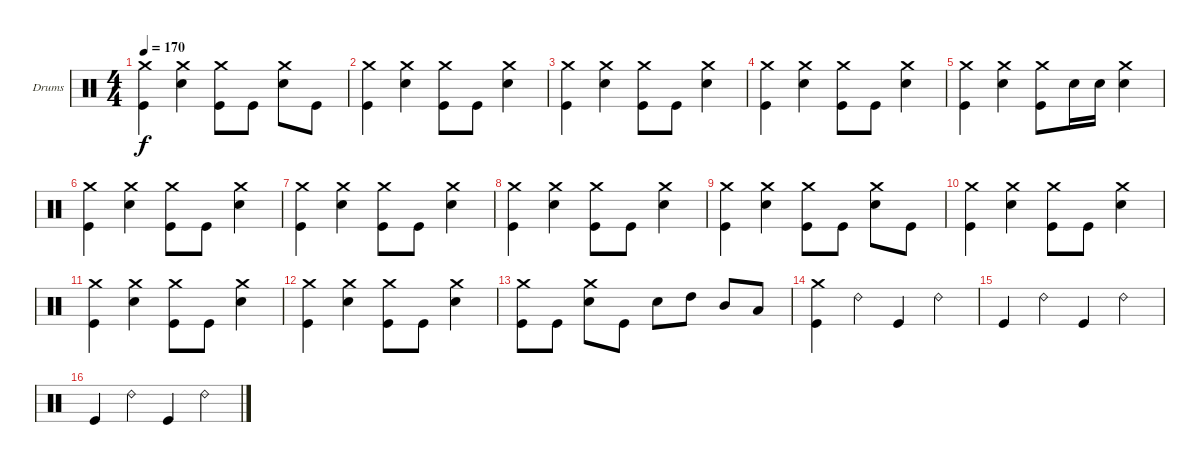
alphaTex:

\defaultSystemsLayout 4
\bracketExtendMode groupsimilarinstruments
\firstSystemTrackNameOrientation horizontal
\otherSystemsTrackNameOrientation horizontal
\track ("Drumkit" "Drums") {instrument percussion}
\staff {score}
\articulation defaults
\ts (4 4)
\tempo 170
\clef neutral
\ks c
("Crash medium (hit)" "Kick (hit)").4{dy f} ("Crash medium (hit)" "Snare (hit) 2").4 ("Crash medium (hit)" "Kick (hit)").8 "Kick (hit)".8 ("Crash medium (hit)" "Snare (hit) 2").8 "Kick (hit)".8 |
("Crash medium (hit)" "Kick (hit)").4 ("Crash medium (hit)" "Snare (hit) 2").4 ("Crash medium (hit)" "Kick (hit)").8 "Kick (hit)".8 ("Crash medium (hit)" "Snare (hit) 2").4 |
("Crash medium (hit)" "Kick (hit)").4 ("Crash medium (hit)" "Snare (hit) 2").4 ("Crash medium (hit)" "Kick (hit)").8 "Kick (hit)".8 ("Crash medium (hit)" "Snare (hit) 2").4 |
("Crash medium (hit)" "Kick (hit)").4 ("Crash medium (hit)" "Snare (hit) 2").4 ("Crash medium (hit)" "Kick (hit)").8 "Kick (hit)".8 ("Crash medium (hit)" "Snare (hit) 2").4 |
("Crash medium (hit)" "Kick (hit)").4 ("Crash medium (hit)" "Snare (hit) 2").4 ("Crash medium (hit)" "Kick (hit)").8 "Snare (hit) 2".16 "Snare (hit) 2".16 ("Crash medium (hit)" "Snare (hit) 2").4 |
("Crash medium (hit)" "Kick (hit)").4 ("Crash medium (hit)" "Snare (hit) 2").4 ("Crash medium (hit)" "Kick (hit)").8 "Kick (hit)".8 ("Crash medium (hit)" "Snare (hit) 2").4 |
("Crash medium (hit)" "Kick (hit)").4 ("Crash medium (hit)" "Snare (hit) 2").4 ("Crash medium (hit)" "Kick (hit)").8 "Kick (hit)".8 ("Crash medium (hit)" "Snare (hit) 2").4 |
("Crash medium (hit)" "Kick (hit)").4 ("Crash medium (hit)" "Snare (hit) 2").4 ("Crash medium (hit)" "Kick (hit)").8 "Kick (hit)".8 ("Crash medium (hit)" "Snare (hit) 2").4 |
("Crash medium (hit)" "Kick (hit)").4 ("Crash medium (hit)" "Snare (hit) 2").4 ("Crash medium (hit)" "Kick (hit)").8 "Kick (hit)".8 ("Crash medium (hit)" "Snare (hit) 2").8 "Kick (hit)".8 |
("Crash medium (hit)" "Kick (hit)").4 ("Crash medium (hit)" "Snare (hit) 2").4 ("Crash medium (hit)" "Kick (hit)").8 "Kick (hit)".8 ("Crash medium (hit)" "Snare (hit) 2").4 |
("Crash medium (hit)" "Kick (hit)").4 ("Crash medium (hit)" "Snare (hit) 2").4 ("Crash medium (hit)" "Kick (hit)").8 "Kick (hit)".8 ("Crash medium (hit)" "Snare (hit) 2").4 |
("Crash medium (hit)" "Kick (hit)").4 ("Crash medium (hit)" "Snare (hit) 2").4 ("Crash medium (hit)" "Kick (hit)").8 "Kick (hit)".8 ("Crash medium (hit)" "Snare (hit) 2").4 |
("Crash medium (hit)" "Kick (hit)").8 "Kick (hit)".8 ("Crash medium (hit)" "Snare (hit) 2").8 "Kick (hit)".8 "Snare (hit) 2".8 "High Tom (hit)".8 "Mid Tom (hit)".8 "Low Tom (hit)".8 |
("Crash medium (hit)" "Kick (hit)").4 "Ride (bell) 2".4 "Kick (hit)".4 "Ride (bell) 2".4 |
"Kick (hit)".4 "Ride (bell) 2".4 "Kick (hit)".4 "Ride (bell) 2".4 |
"Kick (hit)".4 "Ride (bell) 2".4 "Kick (hit)".4 "Ride (bell) 2".4
